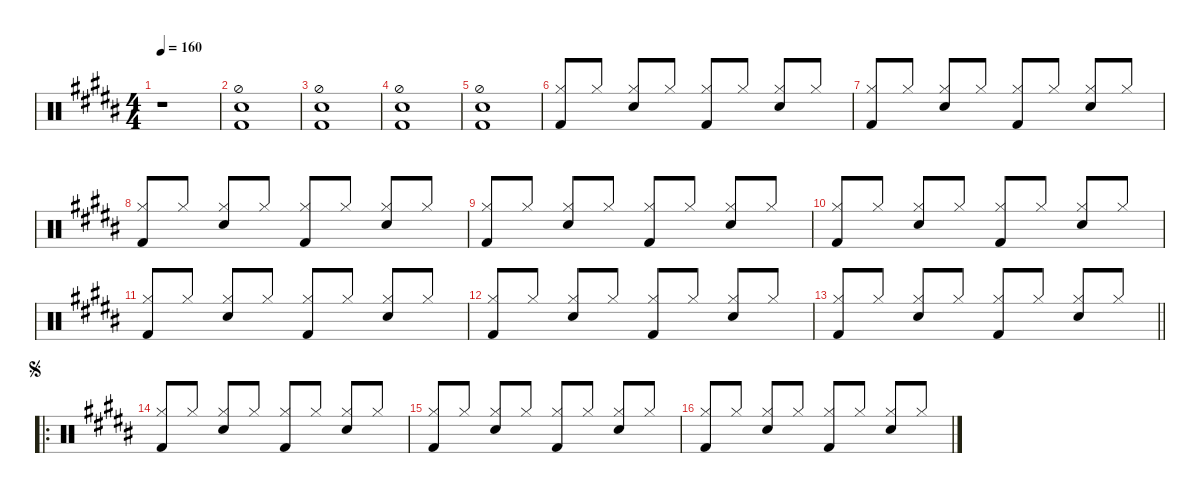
\defaultSystemsLayout 4
\hideDynamics
\bracketExtendMode nobrackets
\singleTrackTrackNamePolicy hidden
\multiTrackTrackNamePolicy hidden
\otherSystemsTrackNameOrientation horizontal
\track ("Drumkit" "Drums") {instrument percussion}
\staff {score}
\articulation defaults
\ts (4 4)
\tempo 160
\clef neutral
\ks b
r.1{dy ff} |
("Kick (hit) 2"{acc forcenatural} "Snare (hit) 2"{acc forcenatural} "Hi-Hat (half)"{acc forcenatural}).1 |
("Kick (hit) 2"{acc forcenatural} "Snare (hit) 2"{acc forcenatural} "Hi-Hat (half)"{acc forcenatural}).1 |
("Kick (hit) 2"{acc forcenatural} "Snare (hit) 2"{acc forcenatural} "Hi-Hat (half)"{acc forcenatural}).1 |
("Kick (hit) 2"{acc forcenatural} "Snare (hit) 2"{acc forcenatural} "Hi-Hat (half)"{acc forcenatural}).1 |
("Hi-Hat (closed)"{acc forcenatural} "Kick (hit) 2"{acc forcenatural}).8{beam invert} "Hi-Hat (closed)"{acc forcenatural}.8 ("Hi-Hat (closed)"{acc forcenatural} "Snare (hit) 2"{acc forcenatural}).8{beam invert} "Hi-Hat (closed)"{acc forcenatural}.8 ("Hi-Hat (closed)"{acc forcenatural} "Kick (hit) 2"{acc forcenatural}).8{beam invert} "Hi-Hat (closed)"{acc forcenatural}.8 ("Hi-Hat (closed)"{acc forcenatural} "Snare (hit) 2"{acc forcenatural}).8{beam invert} "Hi-Hat (closed)"{acc forcenatural}.8 |
("Hi-Hat (closed)"{acc forcenatural} "Kick (hit) 2"{acc forcenatural}).8{beam invert} "Hi-Hat (closed)"{acc forcenatural}.8 ("Hi-Hat (closed)"{acc forcenatural} "Snare (hit) 2"{acc forcenatural}).8{beam invert} "Hi-Hat (closed)"{acc forcenatural}.8 ("Hi-Hat (closed)"{acc forcenatural} "Kick (hit) 2"{acc forcenatural}).8{beam invert} "Hi-Hat (closed)"{acc forcenatural}.8 ("Hi-Hat (closed)"{acc forcenatural} "Snare (hit) 2"{acc forcenatural}).8{beam invert} "Hi-Hat (closed)"{acc forcenatural}.8 |
("Hi-Hat (closed)"{acc forcenatural} "Kick (hit) 2"{acc forcenatural}).8{beam invert} "Hi-Hat (closed)"{acc forcenatural}.8 ("Hi-Hat (closed)"{acc forcenatural} "Snare (hit) 2"{acc forcenatural}).8{beam invert} "Hi-Hat (closed)"{acc forcenatural}.8 ("Hi-Hat (closed)"{acc forcenatural} "Kick (hit) 2"{acc forcenatural}).8{beam invert} "Hi-Hat (closed)"{acc forcenatural}.8 ("Hi-Hat (closed)"{acc forcenatural} "Snare (hit) 2"{acc forcenatural}).8{beam invert} "Hi-Hat (closed)"{acc forcenatural}.8 |
("Hi-Hat (closed)"{acc forcenatural} "Kick (hit) 2"{acc forcenatural}).8{beam invert} "Hi-Hat (closed)"{acc forcenatural}.8 ("Hi-Hat (closed)"{acc forcenatural} "Snare (hit) 2"{acc forcenatural}).8{beam invert} "Hi-Hat (closed)"{acc forcenatural}.8 ("Hi-Hat (closed)"{acc forcenatural} "Kick (hit) 2"{acc forcenatural}).8{beam invert} "Hi-Hat (closed)"{acc forcenatural}.8 ("Hi-Hat (closed)"{acc forcenatural} "Snare (hit) 2"{acc forcenatural}).8{beam invert} "Hi-Hat (closed)"{acc forcenatural}.8 |
("Hi-Hat (closed)"{acc forcenatural} "Kick (hit) 2"{acc forcenatural}).8{beam invert} "Hi-Hat (closed)"{acc forcenatural}.8 ("Hi-Hat (closed)"{acc forcenatural} "Snare (hit) 2"{acc forcenatural}).8{beam invert} "Hi-Hat (closed)"{acc forcenatural}.8 ("Hi-Hat (closed)"{acc forcenatural} "Kick (hit) 2"{acc forcenatural}).8{beam invert} "Hi-Hat (closed)"{acc forcenatural}.8 ("Hi-Hat (closed)"{acc forcenatural} "Snare (hit) 2"{acc forcenatural}).8{beam invert} "Hi-Hat (closed)"{acc forcenatural}.8 |
("Hi-Hat (closed)"{acc forcenatural} "Kick (hit) 2"{acc forcenatural}).8{beam invert} "Hi-Hat (closed)"{acc forcenatural}.8 ("Hi-Hat (closed)"{acc forcenatural} "Snare (hit) 2"{acc forcenatural}).8{beam invert} "Hi-Hat (closed)"{acc forcenatural}.8 ("Hi-Hat (closed)"{acc forcenatural} "Kick (hit) 2"{acc forcenatural}).8{beam invert} "Hi-Hat (closed)"{acc forcenatural}.8 ("Hi-Hat (closed)"{acc forcenatural} "Snare (hit) 2"{acc forcenatural}).8{beam invert} "Hi-Hat (closed)"{acc forcenatural}.8 |
("Hi-Hat (closed)"{acc forcenatural} "Kick (hit) 2"{acc forcenatural}).8{beam invert} "Hi-Hat (closed)"{acc forcenatural}.8 ("Hi-Hat (closed)"{acc forcenatural} "Snare (hit) 2"{acc forcenatural}).8{beam invert} "Hi-Hat (closed)"{acc forcenatural}.8 ("Hi-Hat (closed)"{acc forcenatural} "Kick (hit) 2"{acc forcenatural}).8{beam invert} "Hi-Hat (closed)"{acc forcenatural}.8 ("Hi-Hat (closed)"{acc forcenatural} "Snare (hit) 2"{acc forcenatural}).8{beam invert} "Hi-Hat (closed)"{acc forcenatural}.8 |
\barLineRight lightlight
("Hi-Hat (closed)"{acc forcenatural} "Kick (hit) 2"{acc forcenatural}).8{beam invert} "Hi-Hat (closed)"{acc forcenatural}.8 ("Hi-Hat (closed)"{acc forcenatural} "Snare (hit) 2"{acc forcenatural}).8{beam invert} "Hi-Hat (closed)"{acc forcenatural}.8 ("Hi-Hat (closed)"{acc forcenatural} "Kick (hit) 2"{acc forcenatural}).8{beam invert} "Hi-Hat (closed)"{acc forcenatural}.8 ("Hi-Hat (closed)"{acc forcenatural} "Snare (hit) 2"{acc forcenatural}).8{beam invert} "Hi-Hat (closed)"{acc forcenatural}.8 |
\ro
\jump segno
("Hi-Hat (closed)"{acc forcenatural} "Kick (hit) 2"{acc forcenatural}).8{beam invert} "Hi-Hat (closed)"{acc forcenatural}.8 ("Hi-Hat (closed)"{acc forcenatural} "Snare (hit) 2"{acc forcenatural}).8{beam invert} "Hi-Hat (closed)"{acc forcenatural}.8 ("Hi-Hat (closed)"{acc forcenatural} "Kick (hit) 2"{acc forcenatural}).8{beam invert} "Hi-Hat (closed)"{acc forcenatural}.8 ("Hi-Hat (closed)"{acc forcenatural} "Snare (hit) 2"{acc forcenatural}).8{beam invert} "Hi-Hat (closed)"{acc forcenatural}.8 |
("Hi-Hat (closed)"{acc forcenatural} "Kick (hit) 2"{acc forcenatural}).8{beam invert} "Hi-Hat (closed)"{acc forcenatural}.8 ("Hi-Hat (closed)"{acc forcenatural} "Snare (hit) 2"{acc forcenatural}).8{beam invert} "Hi-Hat (closed)"{acc forcenatural}.8 ("Hi-Hat (closed)"{acc forcenatural} "Kick (hit) 2"{acc forcenatural}).8{beam invert} "Hi-Hat (closed)"{acc forcenatural}.8 ("Hi-Hat (closed)"{acc forcenatural} "Snare (hit) 2"{acc forcenatural}).8{beam invert} "Hi-Hat (closed)"{acc forcenatural}.8 |
("Hi-Hat (closed)"{acc forcenatural} "Kick (hit) 2"{acc forcenatural}).8{beam invert} "Hi-Hat (closed)"{acc forcenatural}.8 ("Hi-Hat (closed)"{acc forcenatural} "Snare (hit) 2"{acc forcenatural}).8{beam invert} "Hi-Hat (closed)"{acc forcenatural}.8 ("Hi-Hat (closed)"{acc forcenatural} "Kick (hit) 2"{acc forcenatural}).8{beam invert} "Hi-Hat (closed)"{acc forcenatural}.8 ("Hi-Hat (closed)"{acc forcenatural} "Snare (hit) 2"{acc forcenatural}).8{beam invert} "Hi-Hat (closed)"{acc forcenatural}.8
